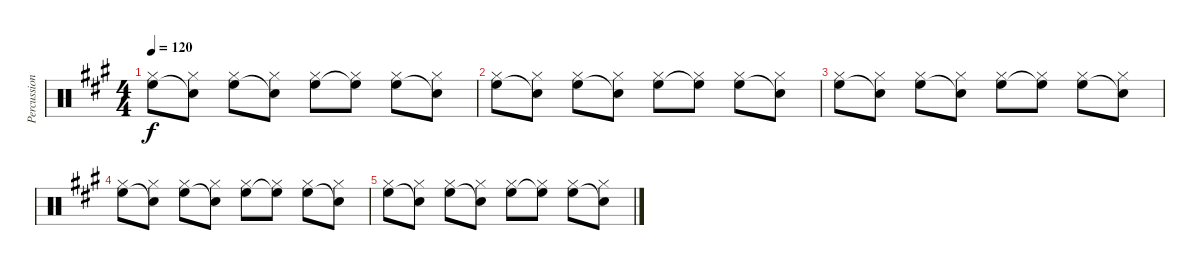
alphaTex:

\track ("Percussion" "Percussion") {instrument percussion}
\staff {score}
\articulation defaults
\ts (4 4)
\tempo 120
\clef neutral
\ks a
("Hi-Hat (closed)" "High Floor Tom (hit)").8{dy f} ("Hi-Hat (closed)" "Snare (hit)"{t}).8 ("Hi-Hat (closed)" "High Floor Tom (hit)").8 ("Hi-Hat (closed)" "Snare (hit)"{t}).8 ("Hi-Hat (closed)" "High Floor Tom (hit)").8 ("Hi-Hat (closed)" "High Floor Tom (hit)"{t}).8 ("Hi-Hat (closed)" "High Floor Tom (hit)").8 ("Hi-Hat (closed)" "Snare (hit)"{t}).8 |
("Hi-Hat (closed)" "High Floor Tom (hit)").8 ("Hi-Hat (closed)" "Snare (hit)"{t}).8 ("Hi-Hat (closed)" "High Floor Tom (hit)").8 ("Hi-Hat (closed)" "Snare (hit)"{t}).8 ("Hi-Hat (closed)" "High Floor Tom (hit)").8 ("Hi-Hat (closed)" "High Floor Tom (hit)"{t}).8 ("Hi-Hat (closed)" "High Floor Tom (hit)").8 ("Hi-Hat (closed)" "Snare (hit)"{t}).8 |
("Hi-Hat (closed)" "High Floor Tom (hit)").8 ("Hi-Hat (closed)" "Snare (hit)"{t}).8 ("Hi-Hat (closed)" "High Floor Tom (hit)").8 ("Hi-Hat (closed)" "Snare (hit)"{t}).8 ("Hi-Hat (closed)" "High Floor Tom (hit)").8 ("Hi-Hat (closed)" "High Floor Tom (hit)"{t}).8 ("Hi-Hat (closed)" "High Floor Tom (hit)").8 ("Hi-Hat (closed)" "Snare (hit)"{t}).8 |
("Hi-Hat (closed)" "High Floor Tom (hit)").8 ("Hi-Hat (closed)" "Snare (hit)"{t}).8 ("Hi-Hat (closed)" "High Floor Tom (hit)").8 ("Hi-Hat (closed)" "Snare (hit)"{t}).8 ("Hi-Hat (closed)" "High Floor Tom (hit)").8 ("Hi-Hat (closed)" "High Floor Tom (hit)"{t}).8 ("Hi-Hat (closed)" "High Floor Tom (hit)").8 ("Hi-Hat (closed)" "Snare (hit)"{t}).8 |
("Hi-Hat (closed)" "High Floor Tom (hit)").8 ("Hi-Hat (closed)" "Snare (hit)"{t}).8 ("Hi-Hat (closed)" "High Floor Tom (hit)").8 ("Hi-Hat (closed)" "Snare (hit)"{t}).8 ("Hi-Hat (closed)" "High Floor Tom (hit)").8 ("Hi-Hat (closed)" "High Floor Tom (hit)"{t}).8 ("Hi-Hat (closed)" "High Floor Tom (hit)").8 ("Hi-Hat (closed)" "Snare (hit)"{t}).8
